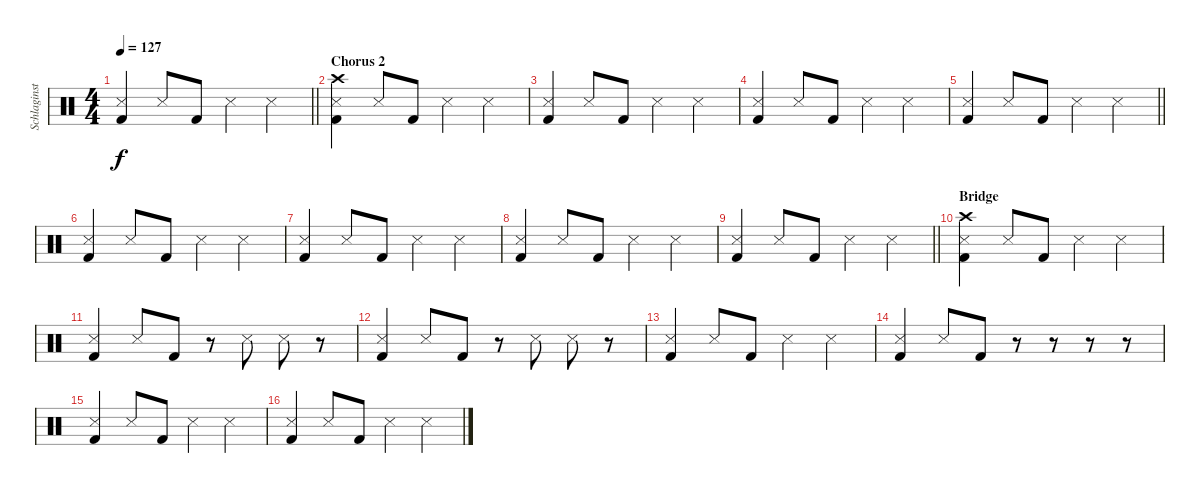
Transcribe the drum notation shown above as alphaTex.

\track ("Schlaginstrumente - Auswahl" "Schlaginst") {instrument percussion}
\staff {score}
\articulation defaults
\ts (4 4)
\tempo 127
\clef neutral
\barLineRight lightlight
\ks c
("Snare (side stick) 3" "Kick (hit) 2").4{dy f} "Snare (side stick) 3".8 "Kick (hit) 2".8 "Snare (side stick) 3".4 "Snare (side stick) 3".4 |
\section ("" "Chorus 2")
("Crash high (hit)" "Snare (side stick) 3" "Kick (hit) 2").4 "Snare (side stick) 3".8 "Kick (hit) 2".8 "Snare (side stick) 3".4 "Snare (side stick) 3".4 |
("Snare (side stick) 3" "Kick (hit) 2").4 "Snare (side stick) 3".8 "Kick (hit) 2".8 "Snare (side stick) 3".4 "Snare (side stick) 3".4 |
("Snare (side stick) 3" "Kick (hit) 2").4 "Snare (side stick) 3".8 "Kick (hit) 2".8 "Snare (side stick) 3".4 "Snare (side stick) 3".4 |
\barLineRight lightlight
("Snare (side stick) 3" "Kick (hit) 2").4 "Snare (side stick) 3".8 "Kick (hit) 2".8 "Snare (side stick) 3".4 "Snare (side stick) 3".4 |
("Snare (side stick) 3" "Kick (hit) 2").4 "Snare (side stick) 3".8 "Kick (hit) 2".8 "Snare (side stick) 3".4 "Snare (side stick) 3".4 |
("Snare (side stick) 3" "Kick (hit) 2").4 "Snare (side stick) 3".8 "Kick (hit) 2".8 "Snare (side stick) 3".4 "Snare (side stick) 3".4 |
("Snare (side stick) 3" "Kick (hit) 2").4 "Snare (side stick) 3".8 "Kick (hit) 2".8 "Snare (side stick) 3".4 "Snare (side stick) 3".4 |
\barLineRight lightlight
("Snare (side stick) 3" "Kick (hit) 2").4 "Snare (side stick) 3".8 "Kick (hit) 2".8 "Snare (side stick) 3".4 "Snare (side stick) 3".4 |
\section ("" "Bridge")
("Crash high (hit)" "Snare (side stick) 3" "Kick (hit) 2").4 "Snare (side stick) 3".8 "Kick (hit) 2".8 "Snare (side stick) 3".4 "Snare (side stick) 3".4 |
("Snare (side stick) 3" "Kick (hit) 2").4 "Snare (side stick) 3".8 "Kick (hit) 2".8 r.8 "Snare (side stick) 3".8 "Snare (side stick) 3".8 r.8 |
("Snare (side stick) 3" "Kick (hit) 2").4 "Snare (side stick) 3".8 "Kick (hit) 2".8 r.8 "Snare (side stick) 3".8 "Snare (side stick) 3".8 r.8 |
("Snare (side stick) 3" "Kick (hit) 2").4 "Snare (side stick) 3".8 "Kick (hit) 2".8 "Snare (side stick) 3".4 "Snare (side stick) 3".4 |
("Snare (side stick) 3" "Kick (hit) 2").4 "Snare (side stick) 3".8 "Kick (hit) 2".8 r.8 r.8 r.8 r.8 |
("Snare (side stick) 3" "Kick (hit) 2").4 "Snare (side stick) 3".8 "Kick (hit) 2".8 "Snare (side stick) 3".4 "Snare (side stick) 3".4 |
("Snare (side stick) 3" "Kick (hit) 2").4 "Snare (side stick) 3".8 "Kick (hit) 2".8 "Snare (side stick) 3".4 "Snare (side stick) 3".4
